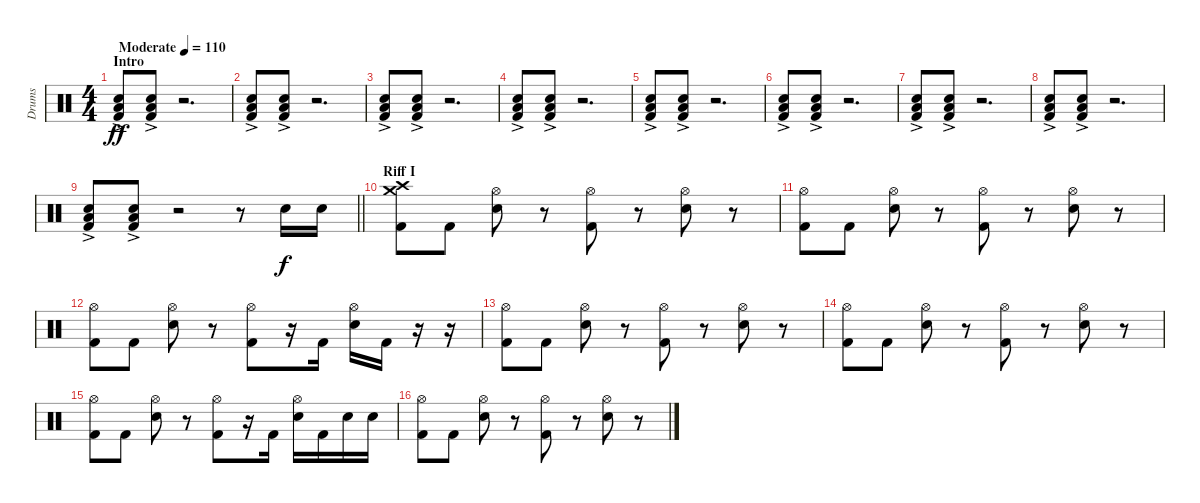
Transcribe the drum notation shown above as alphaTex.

\track ("Drums" "Drums") {instrument percussion}
\staff {score}
\articulation defaults
\ts (4 4)
\section ("" "Intro")
\tempo (110 "Moderate")
\clef neutral
\ks c
("Snare (hit) 2"{ac} "Low Floor Tom (hit)"{ac} "Kick (hit) 2"{ac}).8{dy ff} ("Snare (hit) 2"{ac} "Low Floor Tom (hit)"{ac} "Kick (hit) 2"{ac}).8 r.2{d} |
("Snare (hit) 2"{ac} "Low Floor Tom (hit)"{ac} "Kick (hit) 2"{ac}).8 ("Snare (hit) 2"{ac} "Low Floor Tom (hit)"{ac} "Kick (hit) 2"{ac}).8 r.2{d} |
("Snare (hit) 2"{ac} "Low Floor Tom (hit)"{ac} "Kick (hit) 2"{ac}).8 ("Snare (hit) 2"{ac} "Low Floor Tom (hit)"{ac} "Kick (hit) 2"{ac}).8 r.2{d} |
("Snare (hit) 2"{ac} "Low Floor Tom (hit)"{ac} "Kick (hit) 2"{ac}).8 ("Snare (hit) 2"{ac} "Low Floor Tom (hit)"{ac} "Kick (hit) 2"{ac}).8 r.2{d} |
("Snare (hit) 2"{ac} "Low Floor Tom (hit)"{ac} "Kick (hit) 2"{ac}).8 ("Snare (hit) 2"{ac} "Low Floor Tom (hit)"{ac} "Kick (hit) 2"{ac}).8 r.2{d} |
("Snare (hit) 2"{ac} "Low Floor Tom (hit)"{ac} "Kick (hit) 2"{ac}).8 ("Snare (hit) 2"{ac} "Low Floor Tom (hit)"{ac} "Kick (hit) 2"{ac}).8 r.2{d} |
("Snare (hit) 2"{ac} "Low Floor Tom (hit)"{ac} "Kick (hit) 2"{ac}).8 ("Snare (hit) 2"{ac} "Low Floor Tom (hit)"{ac} "Kick (hit) 2"{ac}).8 r.2{d} |
("Snare (hit) 2"{ac} "Low Floor Tom (hit)"{ac} "Kick (hit) 2"{ac}).8 ("Snare (hit) 2"{ac} "Low Floor Tom (hit)"{ac} "Kick (hit) 2"{ac}).8 r.2{d} |
\barLineRight lightlight
("Snare (hit) 2"{ac} "Low Floor Tom (hit)"{ac} "Kick (hit) 2"{ac}).8 ("Snare (hit) 2"{ac} "Low Floor Tom (hit)"{ac} "Kick (hit) 2"{ac}).8 r.2 r.8 "Snare (hit) 2".16{dy f} "Snare (hit) 2".16 |
\section ("" "Riff I")
("Crash medium (hit)" "Crash high (hit)" "Kick (hit) 2").8 "Kick (hit) 2".8 ("Hi-Hat (open)" "Snare (hit) 2").8 r.8 ("Hi-Hat (open)" "Kick (hit) 2").8 r.8 ("Hi-Hat (open)" "Snare (hit) 2").8 r.8 |
("Hi-Hat (open)" "Kick (hit) 2").8 "Kick (hit) 2".8 ("Hi-Hat (open)" "Snare (hit) 2").8 r.8 ("Hi-Hat (open)" "Kick (hit) 2").8 r.8 ("Hi-Hat (open)" "Snare (hit) 2").8 r.8 |
("Hi-Hat (open)" "Kick (hit) 2").8 "Kick (hit) 2".8 ("Hi-Hat (open)" "Snare (hit) 2").8 r.8 ("Hi-Hat (open)" "Kick (hit) 2").8 r.16 "Kick (hit) 2".16 ("Hi-Hat (open)" "Snare (hit) 2").16 "Kick (hit) 2".16 r.16 r.16 |
("Hi-Hat (open)" "Kick (hit) 2").8 "Kick (hit) 2".8 ("Hi-Hat (open)" "Snare (hit) 2").8 r.8 ("Hi-Hat (open)" "Kick (hit) 2").8 r.8 ("Hi-Hat (open)" "Snare (hit) 2").8 r.8 |
("Hi-Hat (open)" "Kick (hit) 2").8 "Kick (hit) 2".8 ("Hi-Hat (open)" "Snare (hit) 2").8 r.8 ("Hi-Hat (open)" "Kick (hit) 2").8 r.8 ("Hi-Hat (open)" "Snare (hit) 2").8 r.8 |
("Hi-Hat (open)" "Kick (hit) 2").8 "Kick (hit) 2".8 ("Hi-Hat (open)" "Snare (hit) 2").8 r.8 ("Hi-Hat (open)" "Kick (hit) 2").8 r.16 "Kick (hit) 2".16 ("Hi-Hat (open)" "Snare (hit) 2").16 "Kick (hit) 2".16 "Snare (hit) 2".16 "Snare (hit) 2".16 |
("Hi-Hat (open)" "Kick (hit) 2").8 "Kick (hit) 2".8 ("Hi-Hat (open)" "Snare (hit) 2").8 r.8 ("Hi-Hat (open)" "Kick (hit) 2").8 r.8 ("Hi-Hat (open)" "Snare (hit) 2").8 r.8
